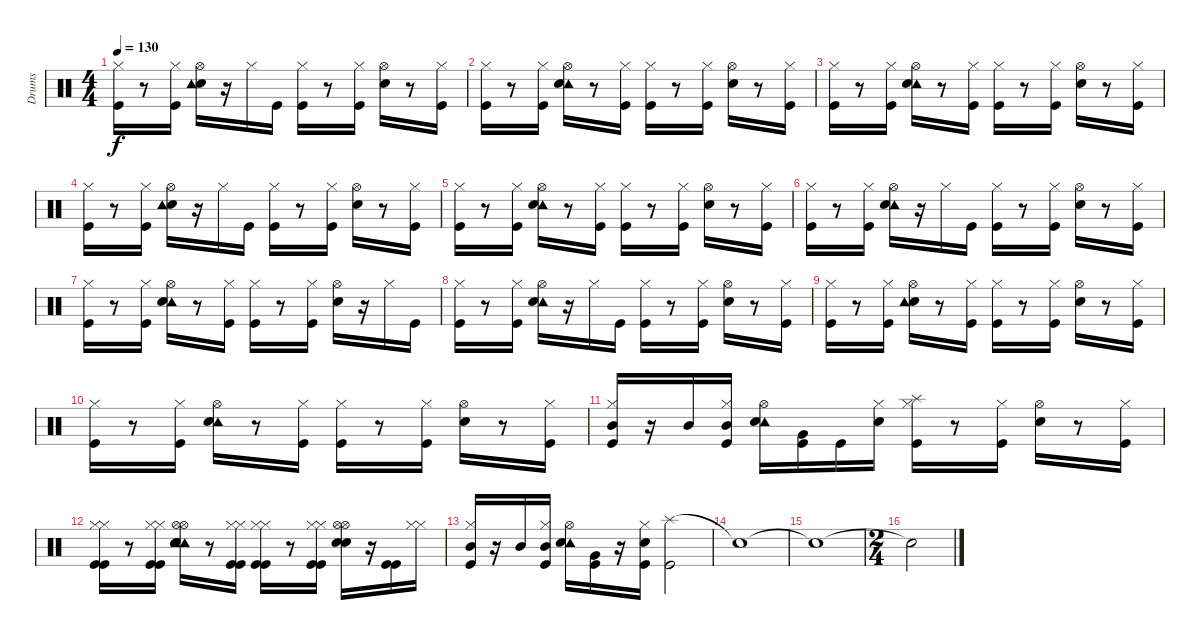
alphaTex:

\track ("Drums" "Drums") {instrument percussion}
\staff {score}
\articulation defaults
\ts (4 4)
\tempo 130
\clef neutral
\ks c
("Kick (hit)" "Hi-Hat (closed)").16{dy f} r.8 ("Hi-Hat (closed)" "Kick (hit)").16 ("Electric Snare (hit)" "Tambourine (hit)" "Hi-Hat (open)").16 r.16 "Hi-Hat (closed)".16 "Kick (hit)".16 ("Kick (hit)" "Hi-Hat (closed)").16 r.8 ("Hi-Hat (closed)" "Kick (hit)").16 ("Electric Snare (hit)" "Hi-Hat (open)").16 r.8 ("Hi-Hat (closed)" "Kick (hit)").16 |
("Hi-Hat (closed)" "Kick (hit)").16 r.8 ("Kick (hit)" "Hi-Hat (closed)").16 ("Hi-Hat (open)" "Tambourine (hit)" "Electric Snare (hit)").16 r.8 ("Hi-Hat (closed)" "Kick (hit)").16 ("Kick (hit)" "Hi-Hat (closed)").16 r.8 ("Kick (hit)" "Hi-Hat (closed)").16 ("Hi-Hat (open)" "Electric Snare (hit)").16 r.8 ("Hi-Hat (closed)" "Kick (hit)").16 |
("Kick (hit)" "Hi-Hat (closed)").16 r.8 ("Hi-Hat (closed)" "Kick (hit)").16 ("Tambourine (hit)" "Electric Snare (hit)" "Hi-Hat (open)").16 r.8 ("Hi-Hat (closed)" "Kick (hit)").16 ("Kick (hit)" "Hi-Hat (closed)").16 r.8 ("Kick (hit)" "Hi-Hat (closed)").16 ("Electric Snare (hit)" "Hi-Hat (open)").16 r.8 ("Kick (hit)" "Hi-Hat (closed)").16 |
("Kick (hit)" "Hi-Hat (closed)").16 r.8 ("Hi-Hat (closed)" "Kick (hit)").16 ("Electric Snare (hit)" "Hi-Hat (open)" "Tambourine (hit)").16 r.16 "Hi-Hat (closed)".16 "Kick (hit)".16 ("Kick (hit)" "Hi-Hat (closed)").16 r.8 ("Kick (hit)" "Hi-Hat (closed)").16 ("Hi-Hat (open)" "Electric Snare (hit)").16 r.8 ("Kick (hit)" "Hi-Hat (closed)").16 |
("Kick (hit)" "Hi-Hat (closed)").16 r.8 ("Kick (hit)" "Hi-Hat (closed)").16 ("Tambourine (hit)" "Electric Snare (hit)" "Hi-Hat (open)").16 r.8 ("Hi-Hat (closed)" "Kick (hit)").16 ("Kick (hit)" "Hi-Hat (closed)").16 r.8 ("Hi-Hat (closed)" "Kick (hit)").16 ("Electric Snare (hit)" "Hi-Hat (open)").16 r.8 ("Kick (hit)" "Hi-Hat (closed)").16 |
("Kick (hit)" "Hi-Hat (closed)").16 r.8 ("Kick (hit)" "Hi-Hat (closed)").16 ("Tambourine (hit)" "Electric Snare (hit)" "Hi-Hat (open)").16 r.16 "Hi-Hat (closed)".16 "Kick (hit)".16 ("Kick (hit)" "Hi-Hat (closed)").16 r.8 ("Hi-Hat (closed)" "Kick (hit)").16 ("Electric Snare (hit)" "Hi-Hat (open)").16 r.8 ("Kick (hit)" "Hi-Hat (closed)").16 |
("Kick (hit)" "Hi-Hat (closed)").16 r.8 ("Kick (hit)" "Hi-Hat (closed)").16 ("Tambourine (hit)" "Electric Snare (hit)" "Hi-Hat (open)").16 r.8 ("Kick (hit)" "Hi-Hat (closed)").16 ("Kick (hit)" "Hi-Hat (closed)").16 r.8 ("Hi-Hat (closed)" "Kick (hit)").16 ("Electric Snare (hit)" "Hi-Hat (open)").16 r.16 "Hi-Hat (closed)".16 "Kick (hit)".16 |
("Hi-Hat (closed)" "Kick (hit)").16 r.8 ("Kick (hit)" "Hi-Hat (closed)").16 ("Hi-Hat (open)" "Tambourine (hit)" "Electric Snare (hit)").16 r.16 "Hi-Hat (closed)".16 "Kick (hit)".16 ("Kick (hit)" "Hi-Hat (closed)").16 r.8 ("Kick (hit)" "Hi-Hat (closed)").16 ("Hi-Hat (open)" "Electric Snare (hit)").16 r.8 ("Hi-Hat (closed)" "Kick (hit)").16 |
("Hi-Hat (closed)" "Kick (hit)").16 r.8 ("Kick (hit)" "Hi-Hat (closed)").16 ("Electric Snare (hit)" "Hi-Hat (open)" "Tambourine (hit)").16 r.8 ("Hi-Hat (closed)" "Kick (hit)").16 ("Kick (hit)" "Hi-Hat (closed)").16 r.8 ("Kick (hit)" "Hi-Hat (closed)").16 ("Hi-Hat (open)" "Electric Snare (hit)").16 r.8 ("Kick (hit)" "Hi-Hat (closed)").16 |
("Kick (hit)" "Hi-Hat (closed)").16 r.8 ("Kick (hit)" "Hi-Hat (closed)").16 ("Tambourine (hit)" "Electric Snare (hit)" "Hi-Hat (open)").16 r.8 ("Kick (hit)" "Hi-Hat (closed)").16 ("Hi-Hat (closed)" "Kick (hit)").16 r.8 ("Kick (hit)" "Hi-Hat (closed)").16 ("Hi-Hat (open)" "Electric Snare (hit)").16 r.8 ("Kick (hit)" "Hi-Hat (closed)").16 |
("Hi-Hat (closed)" "Kick (hit)" "Mid Tom (hit)").16 r.16 "Mid Tom (hit)".16 ("Kick (hit)" "Hi-Hat (closed)" "Mid Tom (hit)").16 ("Tambourine (hit)" "Electric Snare (hit)" "Hi-Hat (open)").16{volume 14} ("Kick (hit)" "Very Low Tom (hit)").16 "Kick (hit)".16 ("Electric Snare (hit)" "Hi-Hat (closed)").16 ("Hi-Hat (closed)" "Splash (hit)" "Kick (hit)").16 r.8 ("Kick (hit)" "Hi-Hat (closed)").16 ("Hi-Hat (open)" "Electric Snare (hit)").16 r.8 ("Hi-Hat (closed)" "Kick (hit)").16 |
("Kick (hit)" "Kick (hit)" "Hi-Hat (closed)" "Hi-Hat (closed)").16{volume 13} r.8 ("Kick (hit)" "Kick (hit)" "Hi-Hat (closed)" "Hi-Hat (closed)").16 ("Hi-Hat (open)" "Hi-Hat (open)" "Tambourine (hit)" "Tambourine (hit)" "Electric Snare (hit)" "Electric Snare (hit)").16 r.8 ("Kick (hit)" "Kick (hit)" "Hi-Hat (closed)" "Hi-Hat (closed)").16 ("Kick (hit)" "Kick (hit)" "Hi-Hat (closed)" "Hi-Hat (closed)").16{volume 12} r.8 ("Kick (hit)" "Kick (hit)" "Hi-Hat (closed)" "Hi-Hat (closed)").16 ("Electric Snare (hit)" "Electric Snare (hit)" "Hi-Hat (open)" "Hi-Hat (open)").16 r.16 ("Kick (hit)" "Kick (hit)").16 ("Hi-Hat (closed)" "Hi-Hat (closed)").16 |
("Hi-Hat (closed)" "Kick (hit)" "Mid Tom (hit)").16 r.16 "Mid Tom (hit)".16 ("Hi-Hat (closed)" "Kick (hit)" "Mid Tom (hit)").16 ("Tambourine (hit)" "Electric Snare (hit)" "Hi-Hat (open)").16 ("Kick (hit)" "Very Low Tom (hit)").16 r.16 ("Electric Snare (hit)" "Kick (hit)" "Hi-Hat (closed)").16 ("Splash (hit)" "Kick (hit)").2 |
"Snare (hit)"{t}.1 |
"Snare (hit)"{t}.1 |
\ts (2 4)
"Snare (hit)"{t}.2
